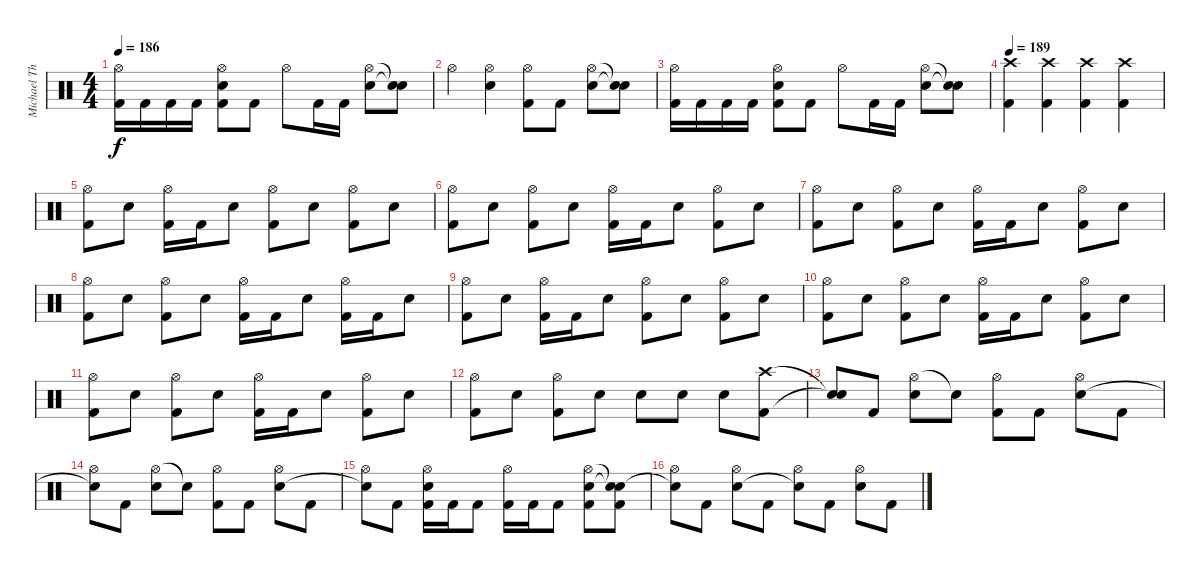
\track ("Michael Thomas" "Michael Th") {instrument percussion}
\staff {score}
\articulation defaults
\ts (4 4)
\tempo 186
\clef neutral
\ks c
("Hi-Hat (open)" "Kick (hit) 2").16{dy f} "Kick (hit) 2".16 "Kick (hit) 2".16 "Kick (hit) 2".16 ("Hi-Hat (open)" "Electric Snare (hit)" "Kick (hit) 2").8 "Kick (hit) 2".8 "Hi-Hat (open)".8 "Kick (hit) 2".16 "Kick (hit) 2".16 ("Hi-Hat (open)" "Electric Snare (hit)").8 ("Snare (hit)"{t} "Snare (hit)"{t}).8 |
"Hi-Hat (open)".4 ("Hi-Hat (open)" "Electric Snare (hit)").4 ("Hi-Hat (open)" "Kick (hit) 2").8 "Kick (hit) 2".8 ("Hi-Hat (open)" "Electric Snare (hit)").8 ("Snare (hit)"{t} "Snare (hit)"{t}).8 |
("Hi-Hat (open)" "Kick (hit) 2").16 "Kick (hit) 2".16 "Kick (hit) 2".16 "Kick (hit) 2".16 ("Hi-Hat (open)" "Electric Snare (hit)" "Kick (hit) 2").8 "Kick (hit) 2".8 "Hi-Hat (open)".8 "Kick (hit) 2".16 "Kick (hit) 2".16 ("Hi-Hat (open)" "Electric Snare (hit)").8 ("Snare (hit)"{t} "Snare (hit)"{t}).8 |
\tempo 189
("Crash high (hit)" "Kick (hit) 2").4 ("Crash high (hit)" "Kick (hit) 2").4 ("Crash high (hit)" "Kick (hit) 2").4 ("Crash high (hit)" "Kick (hit) 2").4 |
("Hi-Hat (open)" "Kick (hit) 2").8 "Electric Snare (hit)".8 ("Hi-Hat (open)" "Kick (hit) 2").16 "Kick (hit) 2".16 "Electric Snare (hit)".8 ("Hi-Hat (open)" "Kick (hit) 2").8 "Electric Snare (hit)".8 ("Hi-Hat (open)" "Kick (hit) 2").8 "Electric Snare (hit)".8 |
("Hi-Hat (open)" "Kick (hit) 2").8 "Electric Snare (hit)".8 ("Hi-Hat (open)" "Kick (hit) 2").8 "Electric Snare (hit)".8 ("Hi-Hat (open)" "Kick (hit) 2").16 "Kick (hit) 2".16 "Electric Snare (hit)".8 ("Hi-Hat (open)" "Kick (hit) 2").8 "Electric Snare (hit)".8 |
("Hi-Hat (open)" "Kick (hit) 2").8 "Electric Snare (hit)".8 ("Hi-Hat (open)" "Kick (hit) 2").8 "Electric Snare (hit)".8 ("Hi-Hat (open)" "Kick (hit) 2").16 "Kick (hit) 2".16 "Electric Snare (hit)".8 ("Hi-Hat (open)" "Kick (hit) 2").8 "Electric Snare (hit)".8 |
("Hi-Hat (open)" "Kick (hit) 2").8 "Electric Snare (hit)".8 ("Hi-Hat (open)" "Kick (hit) 2").8 "Electric Snare (hit)".8 ("Hi-Hat (open)" "Kick (hit) 2").16 "Kick (hit) 2".16 "Electric Snare (hit)".8 ("Hi-Hat (open)" "Kick (hit) 2").16 "Kick (hit) 2".16 "Electric Snare (hit)".8 |
("Hi-Hat (open)" "Kick (hit) 2").8 "Electric Snare (hit)".8 ("Hi-Hat (open)" "Kick (hit) 2").16 "Kick (hit) 2".16 "Electric Snare (hit)".8 ("Hi-Hat (open)" "Kick (hit) 2").8 "Electric Snare (hit)".8 ("Hi-Hat (open)" "Kick (hit) 2").8 "Electric Snare (hit)".8 |
("Hi-Hat (open)" "Kick (hit) 2").8 "Electric Snare (hit)".8 ("Hi-Hat (open)" "Kick (hit) 2").8 "Electric Snare (hit)".8 ("Hi-Hat (open)" "Kick (hit) 2").16 "Kick (hit) 2".16 "Electric Snare (hit)".8 ("Hi-Hat (open)" "Kick (hit) 2").8 "Electric Snare (hit)".8 |
("Hi-Hat (open)" "Kick (hit) 2").8 "Electric Snare (hit)".8 ("Hi-Hat (open)" "Kick (hit) 2").8 "Electric Snare (hit)".8 ("Hi-Hat (open)" "Kick (hit) 2").16 "Kick (hit) 2".16 "Electric Snare (hit)".8 ("Hi-Hat (open)" "Kick (hit) 2").8 "Electric Snare (hit)".8 |
("Hi-Hat (open)" "Kick (hit) 2").8 "Electric Snare (hit)".8 ("Hi-Hat (open)" "Kick (hit) 2").8 "Electric Snare (hit)".8 "Electric Snare (hit)".8 "Electric Snare (hit)".8 "Electric Snare (hit)".8 ("Crash high (hit)" "Kick (hit) 2").8 |
("Snare (hit)"{t} "Snare (hit)"{t}).8 "Kick (hit) 2".8 ("Hi-Hat (open)" "Electric Snare (hit)").8 "Snare (hit)"{t}.8 ("Hi-Hat (open)" "Kick (hit) 2").8 "Kick (hit) 2".8 ("Hi-Hat (open)" "Electric Snare (hit)").8 "Kick (hit) 2".8 |
("Hi-Hat (open)" "Snare (hit)"{t}).8 "Kick (hit) 2".8 ("Hi-Hat (open)" "Electric Snare (hit)").8 "Snare (hit)"{t}.8 ("Hi-Hat (open)" "Kick (hit) 2").8 "Kick (hit) 2".8 ("Hi-Hat (open)" "Electric Snare (hit)").8 "Kick (hit) 2".8 |
("Hi-Hat (open)" "Snare (hit)"{t}).8 "Kick (hit) 2".8 ("Hi-Hat (open)" "Electric Snare (hit)" "Kick (hit) 2").16 "Kick (hit) 2".16 "Kick (hit) 2".8 ("Hi-Hat (open)" "Kick (hit) 2").16 "Kick (hit) 2".16 "Kick (hit) 2".8 ("Hi-Hat (open)" "Electric Snare (hit)" "Kick (hit) 2").8 ("Snare (hit)"{t} "Snare (hit)"{t} "Kick (hit) 2").8 |
("Hi-Hat (open)" "Snare (hit)"{t}).8 "Kick (hit) 2".8 ("Hi-Hat (open)" "Electric Snare (hit)").8 "Kick (hit) 2".8 ("Hi-Hat (open)" "Snare (hit)"{t}).8 "Kick (hit) 2".8 ("Hi-Hat (open)" "Electric Snare (hit)").8 "Kick (hit) 2".8
